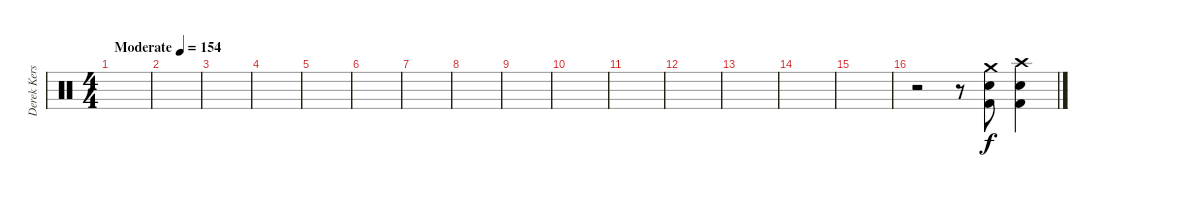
\track ("Derek Kerswill" "Derek Kers") {instrument percussion}
\staff {score}
\articulation defaults
\ts (4 4)
\tempo (154 "Moderate")
\clef neutral
\ks c
|
|
|
|
|
|
|
|
|
|
|
|
|
|
|
r.2 r.8 ("Crash medium (hit)" "Electric Snare (hit)" "Kick (hit) 2").8 ("Crash high (hit)" "Electric Snare (hit)" "Kick (hit) 2").4
